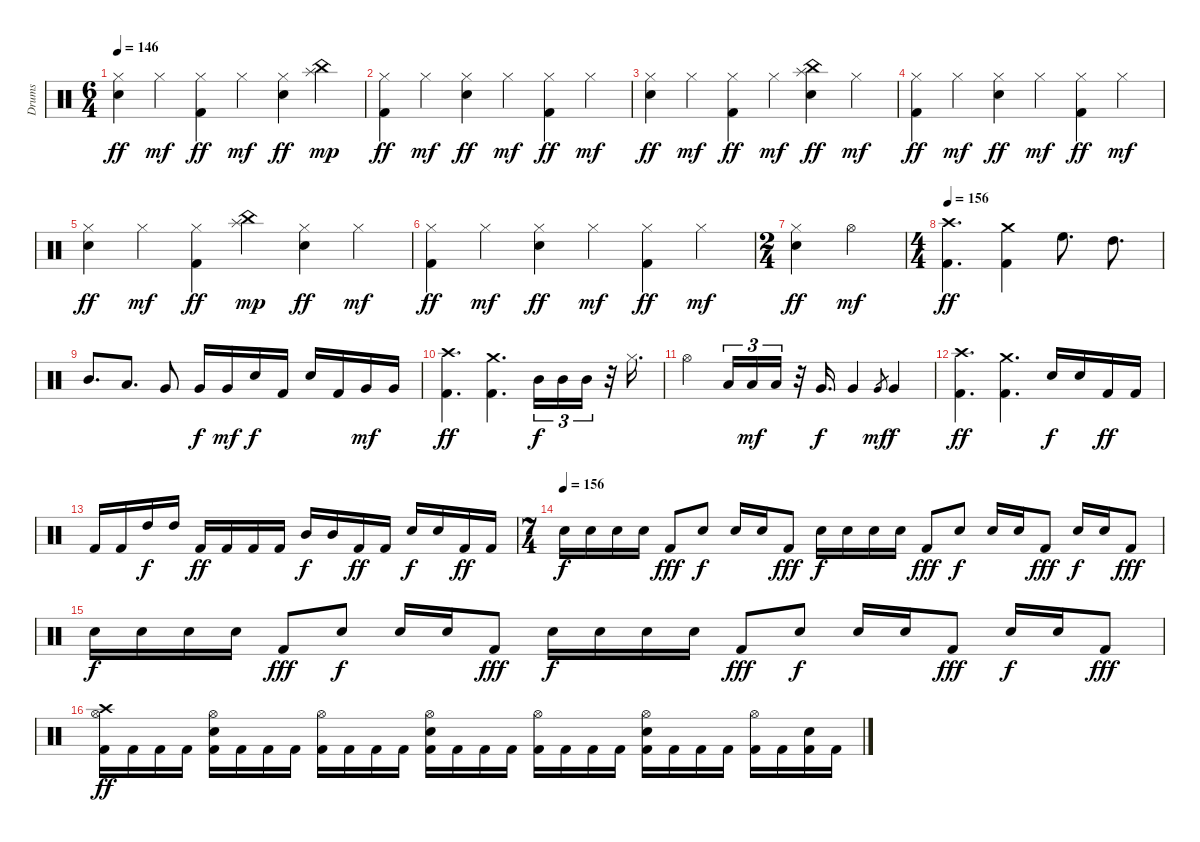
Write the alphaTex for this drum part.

\track ("Drums" "Drums") {instrument percussion}
\staff {score}
\articulation defaults
\ts (6 4)
\tempo 146
\clef neutral
\ks c
("Hi-Hat (closed)" "Electric Snare (hit)").4{dy ff} "Hi-Hat (closed)".4{dy mf} ("Hi-Hat (closed)" "Kick (hit) 2").4{dy ff} "Hi-Hat (closed)".4{dy mf} ("Hi-Hat (closed)" "Electric Snare (hit)").4{dy ff} ("Splash (hit)" "China (hit)").4{dy mp} |
("Hi-Hat (closed)" "Kick (hit) 2").4{dy ff} "Hi-Hat (closed)".4{dy mf} ("Hi-Hat (closed)" "Electric Snare (hit)").4{dy ff} "Hi-Hat (closed)".4{dy mf} ("Hi-Hat (closed)" "Kick (hit) 2").4{dy ff} "Hi-Hat (closed)".4{dy mf} |
("Hi-Hat (closed)" "Electric Snare (hit)").4{dy ff} "Hi-Hat (closed)".4{dy mf} ("Hi-Hat (closed)" "Kick (hit) 2").4{dy ff} "Hi-Hat (closed)".4{dy mf} ("Splash (hit)" "China (hit)" "Electric Snare (hit)").4{dy ff} "Hi-Hat (closed)".4{dy mf} |
("Hi-Hat (closed)" "Kick (hit) 2").4{dy ff} "Hi-Hat (closed)".4{dy mf} ("Hi-Hat (closed)" "Electric Snare (hit)").4{dy ff} "Hi-Hat (closed)".4{dy mf} ("Hi-Hat (closed)" "Kick (hit) 2").4{dy ff} "Hi-Hat (closed)".4{dy mf} |
("Hi-Hat (closed)" "Electric Snare (hit)").4{dy ff} "Hi-Hat (closed)".4{dy mf} ("Hi-Hat (closed)" "Kick (hit) 2").4{dy ff} ("Splash (hit)" "China (hit)").4{dy mp} ("Hi-Hat (closed)" "Electric Snare (hit)").4{dy ff} "Hi-Hat (closed)".4{dy mf} |
("Hi-Hat (closed)" "Kick (hit) 2").4{dy ff} "Hi-Hat (closed)".4{dy mf} ("Hi-Hat (closed)" "Electric Snare (hit)").4{dy ff} "Hi-Hat (closed)".4{dy mf} ("Hi-Hat (closed)" "Kick (hit) 2").4{dy ff} "Hi-Hat (closed)".4{dy mf} |
\ts (2 4)
("Hi-Hat (closed)" "Electric Snare (hit)").4{dy ff} "Hi-Hat (open)".4{dy mf} |
\ts (4 4)
\tempo 156
("Crash high (hit)" "Kick (hit) 2").4{d dy ff} ("Crash medium (hit)" "Kick (hit) 2").4 "High Floor Tom (hit)".8{d} "High Tom (hit)".8{d} |
"Mid Tom (hit)".8{d} "Low Tom (hit)".8{d} "Very Low Tom (hit)".8 "Very Low Tom (hit)".16{dy f} "Very Low Tom (hit)".16{dy mf} "Electric Snare (hit)".16{dy f} "Kick (hit) 2".16 "Electric Snare (hit)".16 "Kick (hit) 2".16 "Very Low Tom (hit)".16{dy mf} "Very Low Tom (hit)".16 |
("Crash high (hit)" "Kick (hit) 2").4{d dy ff} ("Crash medium (hit)" "Kick (hit) 2").4{d} "Mid Tom (hit)".16{tu (3 2) dy f} "Mid Tom (hit)".16{tu (3 2)} "Mid Tom (hit)".16{tu (3 2)} r.32 "Hi-Hat (closed)".16{d} |
"Hi-Hat (open)".4 "Low Tom (hit)".16{tu (3 2)} "Low Tom (hit)".16{tu (3 2) dy mf} "Low Tom (hit)".16{tu (3 2)} r.32 "Very Low Tom (hit)".16{d dy f} "Very Low Tom (hit)".4 "Very Low Tom (hit)".8{gr dy mf} "Very Low Tom (hit)".4{dy f} |
("Crash high (hit)" "Kick (hit) 2").4{d dy ff} ("Crash medium (hit)" "Kick (hit) 2").4{d} "Electric Snare (hit)".16{dy f} "Electric Snare (hit)".16 "Kick (hit) 2".16{dy ff} "Kick (hit) 2".16 |
"Kick (hit) 2".16 "Kick (hit) 2".16 "High Tom (hit)".16{dy f} "High Tom (hit)".16 "Kick (hit) 2".16{dy ff} "Kick (hit) 2".16 "Kick (hit) 2".16 "Kick (hit) 2".16 "Mid Tom (hit)".16{dy f} "Mid Tom (hit)".16 "Kick (hit) 2".16{dy ff} "Kick (hit) 2".16 "Electric Snare (hit)".16{dy f} "Electric Snare (hit)".16 "Kick (hit) 2".16{dy ff} "Kick (hit) 2".16 |
\ts (7 4)
\tempo (156)
"Electric Snare (hit)".16{dy f volume 14} "Electric Snare (hit)".16 "Electric Snare (hit)".16 "Electric Snare (hit)".16 "Kick (hit) 2".8{dy fff} "Electric Snare (hit)".8{dy f} "Electric Snare (hit)".16 "Electric Snare (hit)".16 "Kick (hit) 2".8{dy fff} "Electric Snare (hit)".16{dy f} "Electric Snare (hit)".16 "Electric Snare (hit)".16 "Electric Snare (hit)".16 "Kick (hit) 2".8{dy fff} "Electric Snare (hit)".8{dy f} "Electric Snare (hit)".16 "Electric Snare (hit)".16 "Kick (hit) 2".8{dy fff} "Electric Snare (hit)".16{dy f} "Electric Snare (hit)".16 "Kick (hit) 2".8{dy fff} |
"Electric Snare (hit)".16{dy f} "Electric Snare (hit)".16 "Electric Snare (hit)".16 "Electric Snare (hit)".16 "Kick (hit) 2".8{dy fff} "Electric Snare (hit)".8{dy f} "Electric Snare (hit)".16 "Electric Snare (hit)".16 "Kick (hit) 2".8{dy fff} "Electric Snare (hit)".16{dy f} "Electric Snare (hit)".16 "Electric Snare (hit)".16 "Electric Snare (hit)".16 "Kick (hit) 2".8{dy fff} "Electric Snare (hit)".8{dy f} "Electric Snare (hit)".16 "Electric Snare (hit)".16 "Kick (hit) 2".8{dy fff} "Electric Snare (hit)".16{dy f} "Electric Snare (hit)".16 "Kick (hit) 2".8{dy fff} |
("Crash high (hit)" "Hi-Hat (open)" "Kick (hit) 2").16{dy ff} "Kick (hit) 2".16 "Kick (hit) 2".16 "Kick (hit) 2".16 ("Hi-Hat (open)" "Electric Snare (hit)" "Kick (hit) 2").16 "Kick (hit) 2".16 "Kick (hit) 2".16 "Kick (hit) 2".16 ("Hi-Hat (open)" "Kick (hit) 2").16 "Kick (hit) 2".16 "Kick (hit) 2".16 "Kick (hit) 2".16 ("Hi-Hat (open)" "Electric Snare (hit)" "Kick (hit) 2").16 "Kick (hit) 2".16 "Kick (hit) 2".16 "Kick (hit) 2".16 ("Hi-Hat (open)" "Kick (hit) 2").16 "Kick (hit) 2".16 "Kick (hit) 2".16 "Kick (hit) 2".16 ("Hi-Hat (open)" "Electric Snare (hit)" "Kick (hit) 2").16 "Kick (hit) 2".16 "Kick (hit) 2".16 "Kick (hit) 2".16 ("Hi-Hat (open)" "Kick (hit) 2").16 "Kick (hit) 2".16 ("Electric Snare (hit)" "Kick (hit) 2").16 "Kick (hit) 2".16
